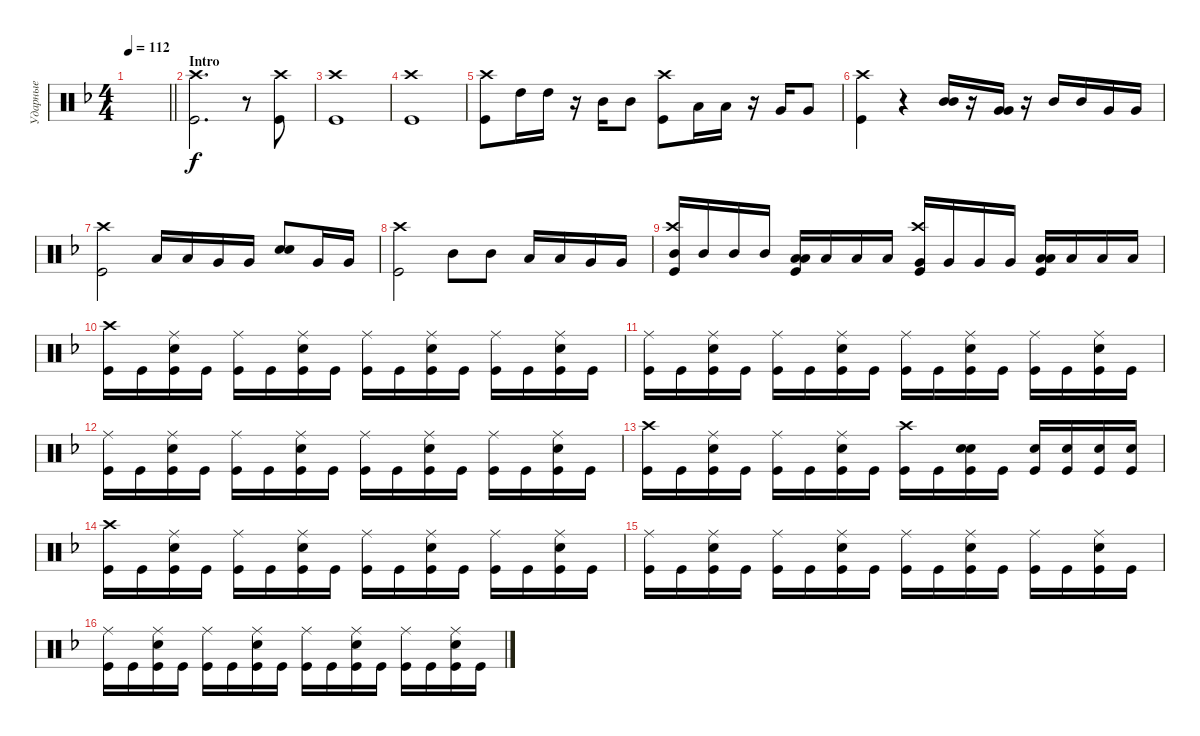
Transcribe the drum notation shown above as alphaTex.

\track ("Ударные" "Ударные") {instrument percussion}
\staff {score}
\articulation defaults
\ts (4 4)
\tempo 112
\clef neutral
\barLineRight lightlight
\ks dminor
|
\section ("" "Intro")
("Kick (hit)" "Crash high (hit)").2{d} r.8 ("Kick (hit)" "Crash high (hit)").8 |
("Kick (hit)" "Crash high (hit)").1 |
("Kick (hit)" "Crash high (hit)").1 |
("Kick (hit)" "Crash high (hit)").8 "High Tom (hit)".16 "High Tom (hit)".16 r.16 "Mid Tom (hit)".16 "Mid Tom (hit)".8 ("Kick (hit)" "Crash high (hit)").8 "Low Tom (hit)".16 "Low Tom (hit)".16 r.16 "Very Low Tom (hit)".16 "Very Low Tom (hit)".8 |
("Kick (hit)" "Crash high (hit)").4 r.4 ("Mid Tom (hit)" "Mid Tom (hit)").16{bd 240} r.16 ("Very Low Tom (hit)" "Very Low Tom (hit)").16{bd 240} r.16 "Mid Tom (hit)".16 "Mid Tom (hit)".16 "Very Low Tom (hit)".16 "Very Low Tom (hit)".16 |
("Kick (hit)" "Crash high (hit)").2 "Low Tom (hit)".16 "Low Tom (hit)".16 "Very Low Tom (hit)".16 "Very Low Tom (hit)".16 ("Snare (hit) 2" "Snare (hit) 2").8{bd 240} "Very Low Tom (hit)".16 "Very Low Tom (hit)".16 |
("Kick (hit)" "Crash high (hit)").2 "Mid Tom (hit)".8 "Mid Tom (hit)".8 "Low Tom (hit)".16 "Low Tom (hit)".16 "Very Low Tom (hit)".16 "Very Low Tom (hit)".16 |
("Kick (hit)" "Mid Tom (hit)" "Crash high (hit)").16 "Mid Tom (hit)".16 "Mid Tom (hit)".16 "Mid Tom (hit)".16 ("Low Tom (hit)" "Low Tom (hit)" "Kick (hit)").16{bd 240} "Low Tom (hit)".16 "Low Tom (hit)".16 "Low Tom (hit)".16 ("Very Low Tom (hit)" "Kick (hit)" "Crash high (hit)").16 "Very Low Tom (hit)".16 "Very Low Tom (hit)".16 "Very Low Tom (hit)".16 ("Low Floor Tom (hit)" "Low Floor Tom (hit)" "Kick (hit)").16{bd 240} "Low Floor Tom (hit)".16 "Low Floor Tom (hit)".16 "Low Floor Tom (hit)".16 |
("Kick (hit)" "Crash high (hit)").16 "Kick (hit)".16 ("Kick (hit)" "Snare (hit) 2" "Ride (middle)").16 "Kick (hit)".16 ("Kick (hit)" "Ride (middle)").16 "Kick (hit)".16 ("Kick (hit)" "Snare (hit) 2" "Ride (middle)").16 "Kick (hit)".16 ("Kick (hit)" "Ride (middle)").16 "Kick (hit)".16 ("Kick (hit)" "Snare (hit) 2" "Ride (middle)").16 "Kick (hit)".16 ("Kick (hit)" "Ride (middle)").16 "Kick (hit)".16 ("Kick (hit)" "Snare (hit) 2" "Ride (middle)").16 "Kick (hit)".16 |
("Kick (hit)" "Ride (middle)").16 "Kick (hit)".16 ("Kick (hit)" "Snare (hit) 2" "Ride (middle)").16 "Kick (hit)".16 ("Kick (hit)" "Ride (middle)").16 "Kick (hit)".16 ("Kick (hit)" "Snare (hit) 2" "Ride (middle)").16 "Kick (hit)".16 ("Kick (hit)" "Ride (middle)").16 "Kick (hit)".16 ("Kick (hit)" "Snare (hit) 2" "Ride (middle)").16 "Kick (hit)".16 ("Kick (hit)" "Ride (middle)").16 "Kick (hit)".16 ("Kick (hit)" "Snare (hit) 2" "Ride (middle)").16 "Kick (hit)".16 |
("Kick (hit)" "Ride (middle)").16 "Kick (hit)".16 ("Kick (hit)" "Snare (hit) 2" "Ride (middle)").16 "Kick (hit)".16 ("Kick (hit)" "Ride (middle)").16 "Kick (hit)".16 ("Kick (hit)" "Snare (hit) 2" "Ride (middle)").16 "Kick (hit)".16 ("Kick (hit)" "Ride (middle)").16 "Kick (hit)".16 ("Kick (hit)" "Snare (hit) 2" "Ride (middle)").16 "Kick (hit)".16 ("Kick (hit)" "Ride (middle)").16 "Kick (hit)".16 ("Kick (hit)" "Snare (hit) 2" "Ride (middle)").16 "Kick (hit)".16 |
("Kick (hit)" "Crash high (hit)").16 "Kick (hit)".16 ("Kick (hit)" "Snare (hit) 2" "Ride (middle)").16 "Kick (hit)".16 ("Kick (hit)" "Ride (middle)").16 "Kick (hit)".16 ("Kick (hit)" "Snare (hit) 2" "Ride (middle)").16 "Kick (hit)".16 ("Kick (hit)" "Crash high (hit)").16 "Kick (hit)".16 ("Kick (hit)" "Snare (hit) 2" "Snare (hit) 2").16{bd 240} "Kick (hit)".16 ("Kick (hit)" "Snare (hit) 2").16 ("Kick (hit)" "Snare (hit) 2").16 ("Kick (hit)" "Snare (hit) 2").16 ("Kick (hit)" "Snare (hit) 2").16 |
("Kick (hit)" "Crash high (hit)").16 "Kick (hit)".16 ("Kick (hit)" "Snare (hit) 2" "Ride (middle)").16 "Kick (hit)".16 ("Kick (hit)" "Ride (middle)").16 "Kick (hit)".16 ("Kick (hit)" "Snare (hit) 2" "Ride (middle)").16 "Kick (hit)".16 ("Kick (hit)" "Ride (middle)").16 "Kick (hit)".16 ("Kick (hit)" "Snare (hit) 2" "Ride (middle)").16 "Kick (hit)".16 ("Kick (hit)" "Ride (middle)").16 "Kick (hit)".16 ("Kick (hit)" "Snare (hit) 2" "Ride (middle)").16 "Kick (hit)".16 |
("Kick (hit)" "Ride (middle)").16 "Kick (hit)".16 ("Kick (hit)" "Snare (hit) 2" "Ride (middle)").16 "Kick (hit)".16 ("Kick (hit)" "Ride (middle)").16 "Kick (hit)".16 ("Kick (hit)" "Snare (hit) 2" "Ride (middle)").16 "Kick (hit)".16 ("Kick (hit)" "Ride (middle)").16 "Kick (hit)".16 ("Kick (hit)" "Snare (hit) 2" "Ride (middle)").16 "Kick (hit)".16 ("Kick (hit)" "Ride (middle)").16 "Kick (hit)".16 ("Kick (hit)" "Snare (hit) 2" "Ride (middle)").16 "Kick (hit)".16 |
("Kick (hit)" "Ride (middle)").16 "Kick (hit)".16 ("Kick (hit)" "Snare (hit) 2" "Ride (middle)").16 "Kick (hit)".16 ("Kick (hit)" "Ride (middle)").16 "Kick (hit)".16 ("Kick (hit)" "Snare (hit) 2" "Ride (middle)").16 "Kick (hit)".16 ("Kick (hit)" "Ride (middle)").16 "Kick (hit)".16 ("Kick (hit)" "Snare (hit) 2" "Ride (middle)").16 "Kick (hit)".16 ("Kick (hit)" "Ride (middle)").16 "Kick (hit)".16 ("Kick (hit)" "Snare (hit) 2" "Ride (middle)").16 "Kick (hit)".16
